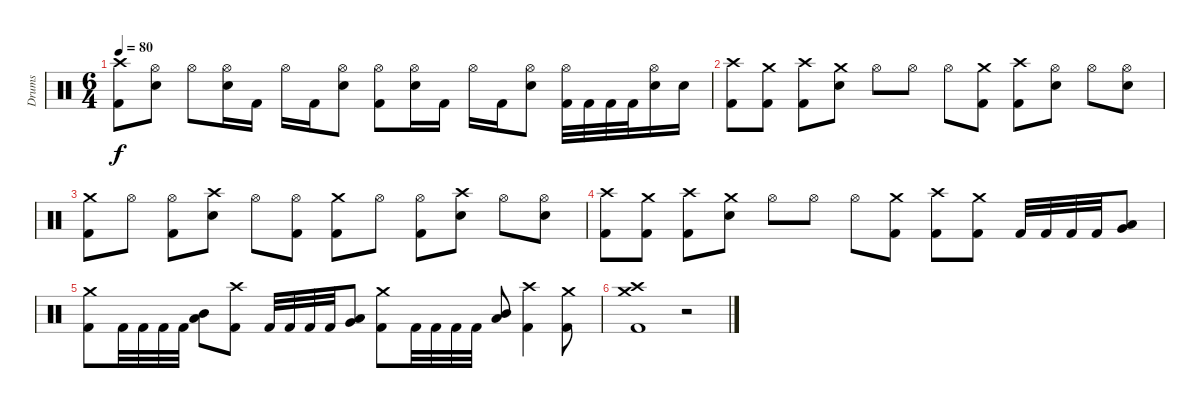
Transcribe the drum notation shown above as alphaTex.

\track ("Drums" "Drums") {instrument percussion}
\staff {score}
\articulation defaults
\ts (6 4)
\tempo 80
\clef neutral
\ks c
("Crash high (hit)" "Kick (hit) 2").8{dy f} ("Hi-Hat (open)" "Electric Snare (hit)").8 "Hi-Hat (open)".8 ("Hi-Hat (open)" "Electric Snare (hit)").16 "Kick (hit) 2".16 "Hi-Hat (open)".16 "Kick (hit) 2".16 ("Hi-Hat (open)" "Electric Snare (hit)").8 ("Hi-Hat (open)" "Kick (hit) 2").8 ("Hi-Hat (open)" "Electric Snare (hit)").16 "Kick (hit) 2".16 "Hi-Hat (open)".16 "Kick (hit) 2".16 ("Hi-Hat (open)" "Electric Snare (hit)").8 ("Hi-Hat (open)" "Kick (hit) 2").32 "Kick (hit) 2".32 "Kick (hit) 2".32 "Kick (hit) 2".32 ("Hi-Hat (open)" "Electric Snare (hit)").16 "Electric Snare (hit)".16 |
("Crash high (hit)" "Kick (hit) 2").8 ("Crash medium (hit)" "Kick (hit) 2").8 ("Crash high (hit)" "Kick (hit) 2").8 ("Crash medium (hit)" "Electric Snare (hit)").8 "Hi-Hat (open)".8 "Hi-Hat (open)".8 "Hi-Hat (open)".8 ("Crash medium (hit)" "Kick (hit) 2").8 ("Crash high (hit)" "Kick (hit) 2").8 ("Hi-Hat (open)" "Electric Snare (hit)").8 "Hi-Hat (open)".8 ("Hi-Hat (open)" "Electric Snare (hit)").8 |
("Crash medium (hit)" "Kick (hit) 2").8 "Hi-Hat (open)".8 ("Hi-Hat (open)" "Kick (hit) 2").8 ("Crash high (hit)" "Electric Snare (hit)").8 "Hi-Hat (open)".8 ("Hi-Hat (open)" "Kick (hit) 2").8 ("Crash medium (hit)" "Kick (hit) 2").8 "Hi-Hat (open)".8 ("Hi-Hat (open)" "Kick (hit) 2").8 ("Crash high (hit)" "Electric Snare (hit)").8 "Hi-Hat (open)".8 ("Hi-Hat (open)" "Electric Snare (hit)").8 |
("Crash high (hit)" "Kick (hit) 2").8 ("Crash medium (hit)" "Kick (hit) 2").8 ("Crash high (hit)" "Kick (hit) 2").8 ("Crash medium (hit)" "Electric Snare (hit)").8 "Hi-Hat (open)".8 "Hi-Hat (open)".8 "Hi-Hat (open)".8 ("Crash medium (hit)" "Kick (hit) 2").8 ("Crash high (hit)" "Kick (hit) 2").8 ("Crash medium (hit)" "Kick (hit) 2").8 "Kick (hit) 2".32 "Kick (hit) 2".32 "Kick (hit) 2".32 "Kick (hit) 2".32 ("Low Tom (hit)" "Very Low Tom (hit)").8 |
("Crash medium (hit)" "Kick (hit) 2").8 "Kick (hit) 2".32 "Kick (hit) 2".32 "Kick (hit) 2".32 "Kick (hit) 2".32 ("Mid Tom (hit)" "Low Tom (hit)").8 ("Crash high (hit)" "Kick (hit) 2").8 "Kick (hit) 2".32 "Kick (hit) 2".32 "Kick (hit) 2".32 "Kick (hit) 2".32 ("Low Tom (hit)" "Very Low Tom (hit)").8 ("Crash medium (hit)" "Kick (hit) 2").8 "Kick (hit) 2".32 "Kick (hit) 2".32 "Kick (hit) 2".32 "Kick (hit) 2".32 ("Mid Tom (hit)" "Low Tom (hit)").8 ("Crash high (hit)" "Kick (hit) 2").4 ("Crash medium (hit)" "Kick (hit) 2").8 |
("Crash medium (hit)" "Crash high (hit)" "Kick (hit) 2").1 r.2
